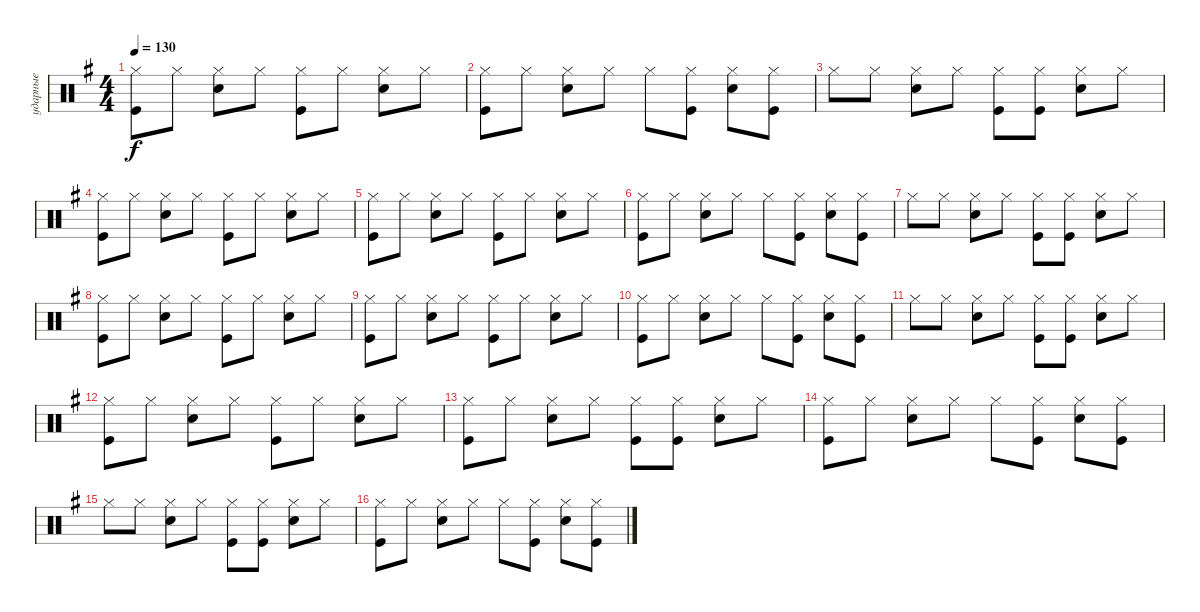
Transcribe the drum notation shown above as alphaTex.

\track ("ударные" "ударные") {instrument percussion}
\staff {score}
\articulation defaults
\ts (4 4)
\tempo 130
\clef neutral
\ks eminor
("Kick (hit)" "Hi-Hat (closed)").8{dy f} "Hi-Hat (closed)".8 ("Snare (hit) 2" "Hi-Hat (closed)").8 "Hi-Hat (closed)".8 ("Kick (hit)" "Hi-Hat (closed)").8 "Hi-Hat (closed)".8 ("Snare (hit) 2" "Hi-Hat (closed)").8 "Hi-Hat (closed)".8 |
("Kick (hit)" "Hi-Hat (closed)").8 "Hi-Hat (closed)".8 ("Snare (hit) 2" "Hi-Hat (closed)").8 "Hi-Hat (closed)".8 "Hi-Hat (closed)".8 ("Hi-Hat (closed)" "Kick (hit)").8 ("Snare (hit) 2" "Hi-Hat (closed)").8 ("Hi-Hat (closed)" "Kick (hit)").8 |
"Hi-Hat (closed)".8 "Hi-Hat (closed)".8 ("Snare (hit) 2" "Hi-Hat (closed)").8 "Hi-Hat (closed)".8 ("Kick (hit)" "Hi-Hat (closed)").8 ("Hi-Hat (closed)" "Kick (hit)").8 ("Snare (hit) 2" "Hi-Hat (closed)").8 "Hi-Hat (closed)".8 |
("Kick (hit)" "Hi-Hat (closed)").8 "Hi-Hat (closed)".8 ("Snare (hit) 2" "Hi-Hat (closed)").8 "Hi-Hat (closed)".8 ("Kick (hit)" "Hi-Hat (closed)").8 "Hi-Hat (closed)".8 ("Snare (hit) 2" "Hi-Hat (closed)").8 "Hi-Hat (closed)".8 |
("Kick (hit)" "Hi-Hat (closed)").8 "Hi-Hat (closed)".8 ("Snare (hit) 2" "Hi-Hat (closed)").8 "Hi-Hat (closed)".8 ("Kick (hit)" "Hi-Hat (closed)").8 "Hi-Hat (closed)".8 ("Snare (hit) 2" "Hi-Hat (closed)").8 "Hi-Hat (closed)".8 |
("Kick (hit)" "Hi-Hat (closed)").8 "Hi-Hat (closed)".8 ("Snare (hit) 2" "Hi-Hat (closed)").8 "Hi-Hat (closed)".8 "Hi-Hat (closed)".8 ("Hi-Hat (closed)" "Kick (hit)").8 ("Snare (hit) 2" "Hi-Hat (closed)").8 ("Hi-Hat (closed)" "Kick (hit)").8 |
"Hi-Hat (closed)".8 "Hi-Hat (closed)".8 ("Snare (hit) 2" "Hi-Hat (closed)").8 "Hi-Hat (closed)".8 ("Kick (hit)" "Hi-Hat (closed)").8 ("Hi-Hat (closed)" "Kick (hit)").8 ("Snare (hit) 2" "Hi-Hat (closed)").8 "Hi-Hat (closed)".8 |
("Kick (hit)" "Hi-Hat (closed)").8 "Hi-Hat (closed)".8 ("Snare (hit) 2" "Hi-Hat (closed)").8 "Hi-Hat (closed)".8 ("Kick (hit)" "Hi-Hat (closed)").8 "Hi-Hat (closed)".8 ("Snare (hit) 2" "Hi-Hat (closed)").8 "Hi-Hat (closed)".8 |
("Kick (hit)" "Hi-Hat (closed)").8 "Hi-Hat (closed)".8 ("Snare (hit) 2" "Hi-Hat (closed)").8 "Hi-Hat (closed)".8 ("Kick (hit)" "Hi-Hat (closed)").8 "Hi-Hat (closed)".8 ("Snare (hit) 2" "Hi-Hat (closed)").8 "Hi-Hat (closed)".8 |
("Kick (hit)" "Hi-Hat (closed)").8 "Hi-Hat (closed)".8 ("Snare (hit) 2" "Hi-Hat (closed)").8 "Hi-Hat (closed)".8 "Hi-Hat (closed)".8 ("Hi-Hat (closed)" "Kick (hit)").8 ("Snare (hit) 2" "Hi-Hat (closed)").8 ("Hi-Hat (closed)" "Kick (hit)").8 |
"Hi-Hat (closed)".8 "Hi-Hat (closed)".8 ("Snare (hit) 2" "Hi-Hat (closed)").8 "Hi-Hat (closed)".8 ("Kick (hit)" "Hi-Hat (closed)").8 ("Hi-Hat (closed)" "Kick (hit)").8 ("Snare (hit) 2" "Hi-Hat (closed)").8 "Hi-Hat (closed)".8 |
("Kick (hit)" "Hi-Hat (closed)").8 "Hi-Hat (closed)".8 ("Snare (hit) 2" "Hi-Hat (closed)").8 "Hi-Hat (closed)".8 ("Kick (hit)" "Hi-Hat (closed)").8 "Hi-Hat (closed)".8 ("Snare (hit) 2" "Hi-Hat (closed)").8 "Hi-Hat (closed)".8 |
("Kick (hit)" "Hi-Hat (closed)").8 "Hi-Hat (closed)".8 ("Snare (hit) 2" "Hi-Hat (closed)").8 "Hi-Hat (closed)".8 ("Kick (hit)" "Hi-Hat (closed)").8 ("Hi-Hat (closed)" "Kick (hit)").8 ("Snare (hit) 2" "Hi-Hat (closed)").8 "Hi-Hat (closed)".8 |
("Kick (hit)" "Hi-Hat (closed)").8 "Hi-Hat (closed)".8 ("Snare (hit) 2" "Hi-Hat (closed)").8 "Hi-Hat (closed)".8 "Hi-Hat (closed)".8 ("Hi-Hat (closed)" "Kick (hit)").8 ("Snare (hit) 2" "Hi-Hat (closed)").8 ("Hi-Hat (closed)" "Kick (hit)").8 |
"Hi-Hat (closed)".8 "Hi-Hat (closed)".8 ("Snare (hit) 2" "Hi-Hat (closed)").8 "Hi-Hat (closed)".8 ("Kick (hit)" "Hi-Hat (closed)").8 ("Hi-Hat (closed)" "Kick (hit)").8 ("Snare (hit) 2" "Hi-Hat (closed)").8 "Hi-Hat (closed)".8 |
("Kick (hit)" "Hi-Hat (closed)").8 "Hi-Hat (closed)".8 ("Snare (hit) 2" "Hi-Hat (closed)").8 "Hi-Hat (closed)".8 "Hi-Hat (closed)".8 ("Hi-Hat (closed)" "Kick (hit)").8 ("Snare (hit) 2" "Hi-Hat (closed)").8 ("Hi-Hat (closed)" "Kick (hit)").8
